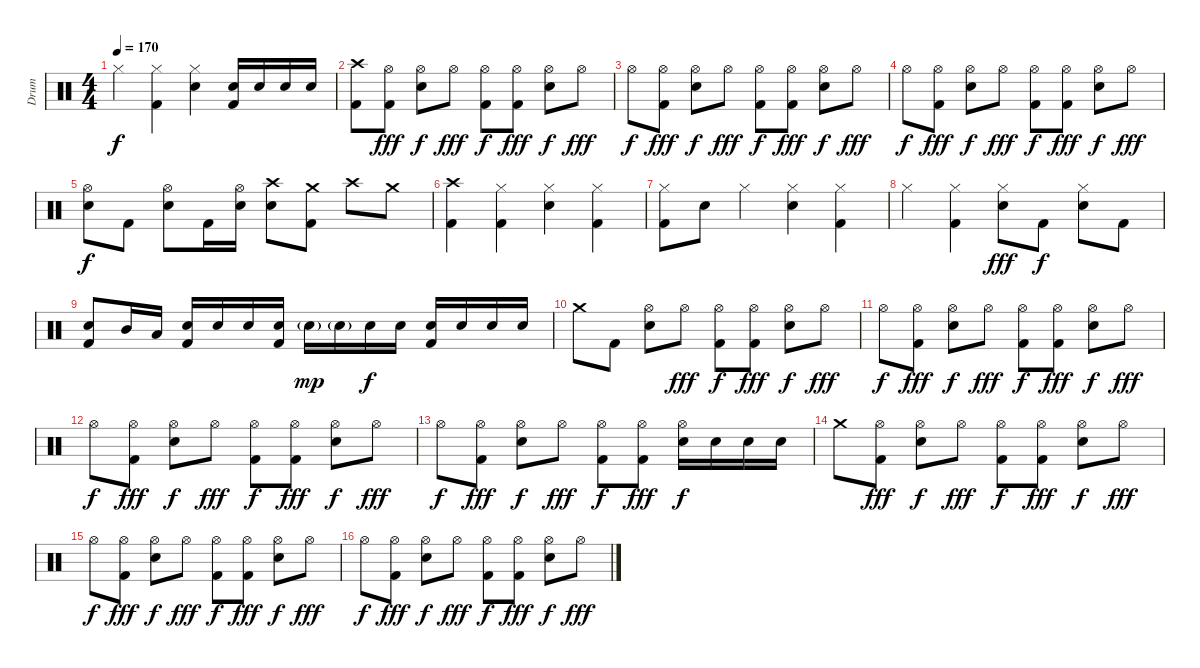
\track ("Drum" "Drum") {instrument percussion}
\staff {score}
\articulation defaults
\ts (4 4)
\tempo 170
\clef neutral
\ks c "Hi-Hat (closed)".4{dy f}
("Hi-Hat (closed)" "Kick (hit) 2").4 ("Hi-Hat (closed)" "Electric Snare (hit)").4 ("Electric Snare (hit)" "Kick (hit) 2").16 "Electric Snare (hit)".16 "Electric Snare (hit)".16 "Electric Snare (hit)".16 |
("Crash high (hit)" "Kick (hit) 2").8 ("Hi-Hat (open)" "Kick (hit) 2").8{dy fff} ("Hi-Hat (open)" "Electric Snare (hit)").8{dy f} "Hi-Hat (open)".8{dy fff} ("Hi-Hat (open)" "Kick (hit) 2").8{dy f} ("Hi-Hat (open)" "Kick (hit) 2").8{dy fff} ("Hi-Hat (open)" "Electric Snare (hit)").8{dy f} "Hi-Hat (open)".8{dy fff} |
"Hi-Hat (open)".8{dy f} ("Hi-Hat (open)" "Kick (hit) 2").8{dy fff} ("Hi-Hat (open)" "Electric Snare (hit)").8{dy f} "Hi-Hat (open)".8{dy fff} ("Hi-Hat (open)" "Kick (hit) 2").8{dy f} ("Hi-Hat (open)" "Kick (hit) 2").8{dy fff} ("Hi-Hat (open)" "Electric Snare (hit)").8{dy f} "Hi-Hat (open)".8{dy fff} |
"Hi-Hat (open)".8{dy f} ("Hi-Hat (open)" "Kick (hit) 2").8{dy fff} ("Hi-Hat (open)" "Electric Snare (hit)").8{dy f} "Hi-Hat (open)".8{dy fff} ("Hi-Hat (open)" "Kick (hit) 2").8{dy f} ("Hi-Hat (open)" "Kick (hit) 2").8{dy fff} ("Hi-Hat (open)" "Electric Snare (hit)").8{dy f} "Hi-Hat (open)".8{dy fff} |
("Hi-Hat (open)" "Electric Snare (hit)").8{dy f} "Kick (hit) 2".8 ("Hi-Hat (open)" "Electric Snare (hit)").8 "Kick (hit) 2".16 ("Hi-Hat (open)" "Electric Snare (hit)").16 ("Crash high (hit)" "Electric Snare (hit)").8 ("Crash medium (hit)" "Kick (hit) 2").8 "Crash high (hit)".8 "Crash medium (hit)".8 |
("Crash high (hit)" "Kick (hit) 2").4 ("Hi-Hat (closed)" "Kick (hit) 2").4 ("Hi-Hat (closed)" "Electric Snare (hit)").4 ("Hi-Hat (closed)" "Kick (hit) 2").4 |
("Hi-Hat (closed)" "Kick (hit) 2").8 "Electric Snare (hit)".8 "Hi-Hat (closed)".4 ("Hi-Hat (closed)" "Electric Snare (hit)").4 ("Hi-Hat (closed)" "Kick (hit) 2").4 |
"Hi-Hat (closed)".4 ("Hi-Hat (closed)" "Kick (hit) 2").4 ("Hi-Hat (closed)" "Electric Snare (hit)").8{dy fff} "Kick (hit) 2".8{dy f} ("Hi-Hat (closed)" "Electric Snare (hit)").8 "Kick (hit) 2".8 |
("Electric Snare (hit)" "Kick (hit) 2").8 "Mid Tom (hit)".16 "Low Tom (hit)".16 ("Electric Snare (hit)" "Kick (hit) 2").16 "Electric Snare (hit)".16 "Electric Snare (hit)".16 ("Electric Snare (hit)" "Kick (hit) 2").16 "Electric Snare (hit)"{g}.16{dy mp} "Electric Snare (hit)"{g}.16 "Electric Snare (hit)".16{dy f} "Electric Snare (hit)".16 ("Electric Snare (hit)" "Kick (hit) 2").16 "Electric Snare (hit)".16 "Electric Snare (hit)".16 "Electric Snare (hit)".16 |
"Crash medium (hit)".8 "Kick (hit) 2".8 ("Hi-Hat (open)" "Electric Snare (hit)").8 "Hi-Hat (open)".8{dy fff} ("Hi-Hat (open)" "Kick (hit) 2").8{dy f} ("Hi-Hat (open)" "Kick (hit) 2").8{dy fff} ("Hi-Hat (open)" "Electric Snare (hit)").8{dy f} "Hi-Hat (open)".8{dy fff} |
"Hi-Hat (open)".8{dy f} ("Hi-Hat (open)" "Kick (hit) 2").8{dy fff} ("Hi-Hat (open)" "Electric Snare (hit)").8{dy f} "Hi-Hat (open)".8{dy fff} ("Hi-Hat (open)" "Kick (hit) 2").8{dy f} ("Hi-Hat (open)" "Kick (hit) 2").8{dy fff} ("Hi-Hat (open)" "Electric Snare (hit)").8{dy f} "Hi-Hat (open)".8{dy fff} |
"Hi-Hat (open)".8{dy f} ("Hi-Hat (open)" "Kick (hit) 2").8{dy fff} ("Hi-Hat (open)" "Electric Snare (hit)").8{dy f} "Hi-Hat (open)".8{dy fff} ("Hi-Hat (open)" "Kick (hit) 2").8{dy f} ("Hi-Hat (open)" "Kick (hit) 2").8{dy fff} ("Hi-Hat (open)" "Electric Snare (hit)").8{dy f} "Hi-Hat (open)".8{dy fff} |
"Hi-Hat (open)".8{dy f} ("Hi-Hat (open)" "Kick (hit) 2").8{dy fff} ("Hi-Hat (open)" "Electric Snare (hit)").8{dy f} "Hi-Hat (open)".8{dy fff} ("Hi-Hat (open)" "Kick (hit) 2").8{dy f} ("Hi-Hat (open)" "Kick (hit) 2").8{dy fff} ("Hi-Hat (open)" "Electric Snare (hit)").16{dy f} "Electric Snare (hit)".16 "Electric Snare (hit)".16 "Electric Snare (hit)".16 |
"Crash medium (hit)".8 ("Hi-Hat (open)" "Kick (hit) 2").8{dy fff} ("Hi-Hat (open)" "Electric Snare (hit)").8{dy f} "Hi-Hat (open)".8{dy fff} ("Hi-Hat (open)" "Kick (hit) 2").8{dy f} ("Hi-Hat (open)" "Kick (hit) 2").8{dy fff} ("Hi-Hat (open)" "Electric Snare (hit)").8{dy f} "Hi-Hat (open)".8{dy fff} |
"Hi-Hat (open)".8{dy f} ("Hi-Hat (open)" "Kick (hit) 2").8{dy fff} ("Hi-Hat (open)" "Electric Snare (hit)").8{dy f} "Hi-Hat (open)".8{dy fff} ("Hi-Hat (open)" "Kick (hit) 2").8{dy f} ("Hi-Hat (open)" "Kick (hit) 2").8{dy fff} ("Hi-Hat (open)" "Electric Snare (hit)").8{dy f} "Hi-Hat (open)".8{dy fff} |
"Hi-Hat (open)".8{dy f} ("Hi-Hat (open)" "Kick (hit) 2").8{dy fff} ("Hi-Hat (open)" "Electric Snare (hit)").8{dy f} "Hi-Hat (open)".8{dy fff} ("Hi-Hat (open)" "Kick (hit) 2").8{dy f} ("Hi-Hat (open)" "Kick (hit) 2").8{dy fff} ("Hi-Hat (open)" "Electric Snare (hit)").8{dy f} "Hi-Hat (open)".8{dy fff}
